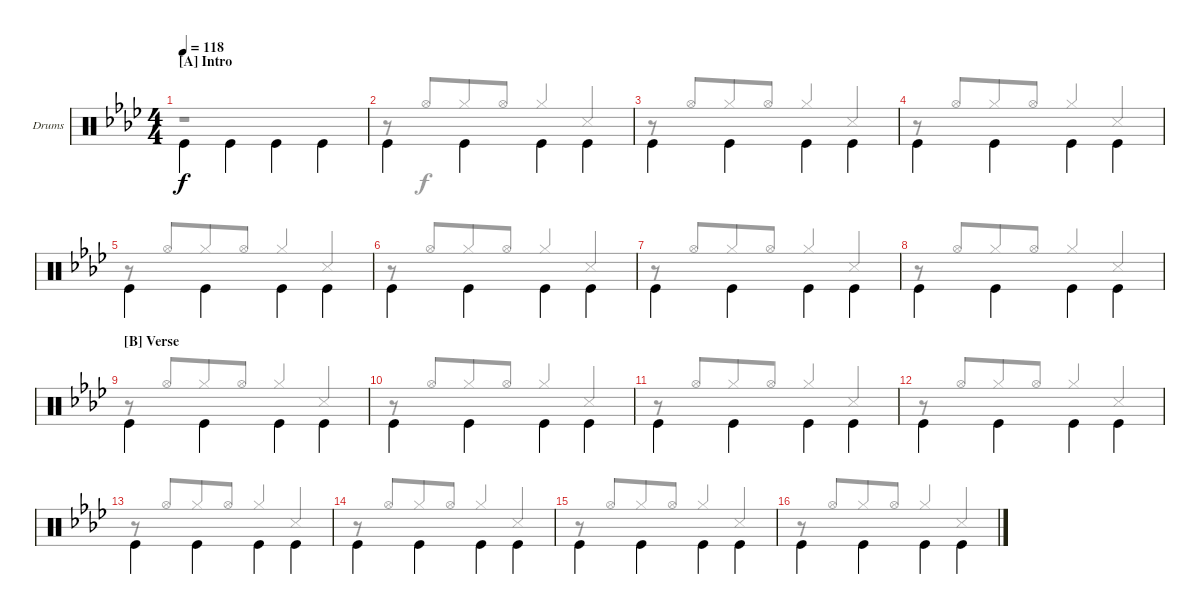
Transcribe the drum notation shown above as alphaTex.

\bracketExtendMode groupsimilarinstruments
\firstSystemTrackNameOrientation horizontal
\otherSystemsTrackNameOrientation horizontal
\track ("Drums" "Drums") {instrument percussion}
\staff {score}
\articulation defaults
\voice
\ts (4 4)
\section ("A" "Intro")
\tempo 118
\clef neutral
\scale
0.641509
\ks ab "Kick (hit)".4{dy f beam invert} "Kick (hit)".4{beam invert} "Kick (hit)".4{beam invert} "Kick (hit)".4{beam invert}
|
\scale
0.358491 "Kick (hit)".4{beam invert} "Kick (hit)".4{beam invert} "Kick (hit)".4{beam invert} "Kick (hit)".4{beam invert} |
\scale
0.5 "Kick (hit)".4{beam invert} "Kick (hit)".4{beam invert} "Kick (hit)".4{beam invert} "Kick (hit)".4{beam invert} |
\scale
0.5 "Kick (hit)".4{beam invert} "Kick (hit)".4{beam invert} "Kick (hit)".4{beam invert} "Kick (hit)".4{beam invert} |
\scale
0.5 "Kick (hit)".4{beam invert} "Kick (hit)".4{beam invert} "Kick (hit)".4{beam invert} "Kick (hit)".4{beam invert} |
\scale
0.5 "Kick (hit)".4{beam invert} "Kick (hit)".4{beam invert} "Kick (hit)".4{beam invert} "Kick (hit)".4{beam invert} |
\scale
0.5 "Kick (hit)".4{beam invert} "Kick (hit)".4{beam invert} "Kick (hit)".4{beam invert} "Kick (hit)".4{beam invert} |
\scale
0.5 "Kick (hit)".4{beam invert} "Kick (hit)".4{beam invert} "Kick (hit)".4{beam invert} "Kick (hit)".4{beam invert} |
\section ("B" "Verse")
\scale
0.5 "Kick (hit)".4{beam invert} "Kick (hit)".4{beam invert} "Kick (hit)".4{beam invert} "Kick (hit)".4{beam invert} |
\scale
0.5 "Kick (hit)".4{beam invert} "Kick (hit)".4{beam invert} "Kick (hit)".4{beam invert} "Kick (hit)".4{beam invert} |
\scale
0.5 "Kick (hit)".4{beam invert} "Kick (hit)".4{beam invert} "Kick (hit)".4{beam invert} "Kick (hit)".4{beam invert} |
\scale
0.5 "Kick (hit)".4{beam invert} "Kick (hit)".4{beam invert} "Kick (hit)".4{beam invert} "Kick (hit)".4{beam invert} |
\scale
0.5 "Kick (hit)".4{beam invert} "Kick (hit)".4{beam invert} "Kick (hit)".4{beam invert} "Kick (hit)".4{beam invert} |
\scale
0.5 "Kick (hit)".4{beam invert} "Kick (hit)".4{beam invert} "Kick (hit)".4{beam invert} "Kick (hit)".4{beam invert} |
\scale
0.5 "Kick (hit)".4{beam invert} "Kick (hit)".4{beam invert} "Kick (hit)".4{beam invert} "Kick (hit)".4{beam invert} |
\scale
0.5 "Kick (hit)".4{beam invert} "Kick (hit)".4{beam invert} "Kick (hit)".4{beam invert} "Kick (hit)".4{beam invert}
\voice
\clef neutral
\ottava regular
\simile none
\scale
0.641509
\ks ab
r.1{dy f} |
\scale
0.358491 r.8 "Hi-Hat (open)".8{beam invert beam merge} "Hi-Hat (closed)".8{beam merge} "Hi-Hat (open)".8{beam merge} "Hi-Hat (closed)".4{beam invert beam merge} "Snare (side stick) 3".4{beam invert beam merge} |
\scale
0.5 r.8 "Hi-Hat (open)".8{beam invert beam merge} "Hi-Hat (closed)".8{beam merge} "Hi-Hat (open)".8{beam merge} "Hi-Hat (closed)".4{beam invert beam merge} "Snare (side stick) 3".4{beam invert beam merge} |
\scale
0.5 r.8 "Hi-Hat (open)".8{beam invert beam merge} "Hi-Hat (closed)".8{beam merge} "Hi-Hat (open)".8{beam merge} "Hi-Hat (closed)".4{beam invert beam merge} "Snare (side stick) 3".4{beam invert beam merge} |
\scale
0.5 r.8 "Hi-Hat (open)".8{beam invert beam merge} "Hi-Hat (closed)".8{beam merge} "Hi-Hat (open)".8{beam merge} "Hi-Hat (closed)".4{beam invert beam merge} "Snare (side stick) 3".4{beam invert beam merge} |
\scale
0.5 r.8 "Hi-Hat (open)".8{beam invert beam merge} "Hi-Hat (closed)".8{beam merge} "Hi-Hat (open)".8{beam merge} "Hi-Hat (closed)".4{beam invert beam merge} "Snare (side stick) 3".4{beam invert beam merge} |
\scale
0.5 r.8 "Hi-Hat (open)".8{beam invert beam merge} "Hi-Hat (closed)".8{beam merge} "Hi-Hat (open)".8{beam merge} "Hi-Hat (closed)".4{beam invert beam merge} "Snare (side stick) 3".4{beam invert beam merge} |
\scale
0.5 r.8 "Hi-Hat (open)".8{beam invert beam merge} "Hi-Hat (closed)".8{beam merge} "Hi-Hat (open)".8{beam merge} "Hi-Hat (closed)".4{beam invert beam merge} "Snare (side stick) 3".4{beam invert beam merge} |
\scale
0.5 r.8 "Hi-Hat (open)".8{beam invert beam merge} "Hi-Hat (closed)".8{beam merge} "Hi-Hat (open)".8{beam merge} "Hi-Hat (closed)".4{beam invert beam merge} "Snare (side stick) 3".4{beam invert beam merge} |
\scale
0.5 r.8 "Hi-Hat (open)".8{beam invert beam merge} "Hi-Hat (closed)".8{beam merge} "Hi-Hat (open)".8{beam merge} "Hi-Hat (closed)".4{beam invert beam merge} "Snare (side stick) 3".4{beam invert beam merge} |
\scale
0.5 r.8 "Hi-Hat (open)".8{beam invert beam merge} "Hi-Hat (closed)".8{beam merge} "Hi-Hat (open)".8{beam merge} "Hi-Hat (closed)".4{beam invert beam merge} "Snare (side stick) 3".4{beam invert beam merge} |
\scale
0.5 r.8 "Hi-Hat (open)".8{beam invert beam merge} "Hi-Hat (closed)".8{beam merge} "Hi-Hat (open)".8{beam merge} "Hi-Hat (closed)".4{beam invert beam merge} "Snare (side stick) 3".4{beam invert beam merge} |
\scale
0.5 r.8 "Hi-Hat (open)".8{beam invert beam merge} "Hi-Hat (closed)".8{beam merge} "Hi-Hat (open)".8{beam merge} "Hi-Hat (closed)".4{beam invert beam merge} "Snare (side stick) 3".4{beam invert beam merge} |
\scale
0.5 r.8 "Hi-Hat (open)".8{beam invert beam merge} "Hi-Hat (closed)".8{beam merge} "Hi-Hat (open)".8{beam merge} "Hi-Hat (closed)".4{beam invert beam merge} "Snare (side stick) 3".4{beam invert beam merge} |
\scale
0.5 r.8 "Hi-Hat (open)".8{beam invert beam merge} "Hi-Hat (closed)".8{beam merge} "Hi-Hat (open)".8{beam merge} "Hi-Hat (closed)".4{beam invert beam merge} "Snare (side stick) 3".4{beam invert beam merge} |
\scale
0.5 r.8 "Hi-Hat (open)".8{beam invert beam merge} "Hi-Hat (closed)".8{beam merge} "Hi-Hat (open)".8{beam merge} "Hi-Hat (closed)".4{beam invert beam merge} "Snare (side stick) 3".4{beam invert beam merge}
